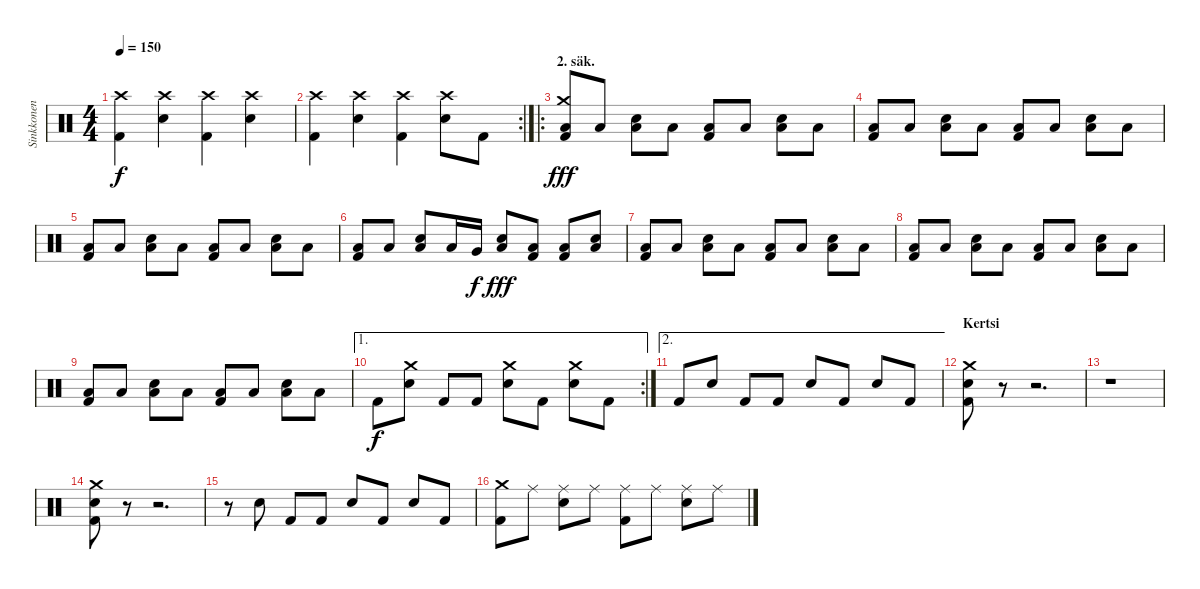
\track ("Sinkkonen" "Sinkkonen") {instrument percussion}
\staff {score}
\articulation defaults
\ts (4 4)
\tempo 150
\clef neutral
\ks c
("Kick (hit) 2" "Crash high (hit)").4{dy f} ("Crash high (hit)" "Snare (hit) 2").4 ("Kick (hit) 2" "Crash high (hit)").4 ("Crash high (hit)" "Snare (hit) 2").4 |
\rc 2
("Kick (hit) 2" "Crash high (hit)").4 ("Crash high (hit)" "Snare (hit) 2").4 ("Kick (hit) 2" "Crash high (hit)").4 ("Crash high (hit)" "Snare (hit) 2").8 "Kick (hit) 2".8 |
\ro
\section ("" "2. säk.")
("Kick (hit) 2" "Crash medium (hit)" "Low Floor Tom (hit)").8{dy fff} "Low Floor Tom (hit)".8 ("Low Floor Tom (hit)" "Snare (hit) 2").8 "Low Floor Tom (hit)".8 ("Kick (hit) 2" "Low Floor Tom (hit)").8 "Low Floor Tom (hit)".8 ("Low Floor Tom (hit)" "Snare (hit) 2").8 "Low Floor Tom (hit)".8 |
("Kick (hit) 2" "Low Floor Tom (hit)").8 "Low Floor Tom (hit)".8 ("Low Floor Tom (hit)" "Snare (hit) 2").8 "Low Floor Tom (hit)".8 ("Kick (hit) 2" "Low Floor Tom (hit)").8 "Low Floor Tom (hit)".8 ("Low Floor Tom (hit)" "Snare (hit) 2").8 "Low Floor Tom (hit)".8 |
("Kick (hit) 2" "Low Floor Tom (hit)").8 "Low Floor Tom (hit)".8 ("Low Floor Tom (hit)" "Snare (hit) 2").8 "Low Floor Tom (hit)".8 ("Kick (hit) 2" "Low Floor Tom (hit)").8 "Low Floor Tom (hit)".8 ("Low Floor Tom (hit)" "Snare (hit) 2").8 "Low Floor Tom (hit)".8 |
("Kick (hit) 2" "Low Floor Tom (hit)").8 "Low Floor Tom (hit)".8 ("Low Floor Tom (hit)" "Snare (hit) 2").8 "Low Tom (hit)".16 "Very Low Tom (hit)".16{dy f} ("Low Floor Tom (hit)" "Snare (hit) 2").8{dy fff} ("Kick (hit) 2" "Low Floor Tom (hit)").8 ("Kick (hit) 2" "Low Floor Tom (hit)").8 ("Low Floor Tom (hit)" "Snare (hit) 2").8 |
("Kick (hit) 2" "Low Floor Tom (hit)").8 "Low Floor Tom (hit)".8 ("Low Floor Tom (hit)" "Snare (hit) 2").8 "Low Floor Tom (hit)".8 ("Kick (hit) 2" "Low Floor Tom (hit)").8 "Low Floor Tom (hit)".8 ("Low Floor Tom (hit)" "Snare (hit) 2").8 "Low Floor Tom (hit)".8 |
("Kick (hit) 2" "Low Floor Tom (hit)").8 "Low Floor Tom (hit)".8 ("Low Floor Tom (hit)" "Snare (hit) 2").8 "Low Floor Tom (hit)".8 ("Kick (hit) 2" "Low Floor Tom (hit)").8 "Low Floor Tom (hit)".8 ("Low Floor Tom (hit)" "Snare (hit) 2").8 "Low Floor Tom (hit)".8 |
("Kick (hit) 2" "Low Floor Tom (hit)").8 "Low Floor Tom (hit)".8 ("Low Floor Tom (hit)" "Snare (hit) 2").8 "Low Floor Tom (hit)".8 ("Kick (hit) 2" "Low Floor Tom (hit)").8 "Low Floor Tom (hit)".8 ("Low Floor Tom (hit)" "Snare (hit) 2").8 "Low Floor Tom (hit)".8 |
\ae 1
\rc 2 "Kick (hit) 2".8{dy f}
("Crash medium (hit)" "Snare (hit) 2").8 "Kick (hit) 2".8 "Kick (hit) 2".8 ("Crash medium (hit)" "Snare (hit) 2").8 "Kick (hit) 2".8 ("Crash medium (hit)" "Snare (hit) 2").8 "Kick (hit) 2".8 |
\ae 2 "Kick (hit) 2".8 "Snare (hit) 2".8 "Kick (hit) 2".8 "Kick (hit) 2".8 "Snare (hit) 2".8 "Kick (hit) 2".8 "Snare (hit) 2".8 "Kick (hit) 2".8
|
\section ("" "Kertsi")
("Kick (hit) 2" "Crash medium (hit)" "Snare (hit) 2").8 r.8 r.2{d} |
r.1 |
("Kick (hit) 2" "Crash medium (hit)" "Snare (hit) 2").8 r.8 r.2{d} |
r.8 "Snare (hit) 2".8 "Kick (hit) 2".8 "Kick (hit) 2".8 "Snare (hit) 2".8 "Kick (hit) 2".8 "Snare (hit) 2".8 "Kick (hit) 2".8 |
("Kick (hit) 2" "Crash medium (hit)").8 "Ride (middle)".8 ("Ride (middle)" "Snare (hit) 2").8 "Ride (middle)".8 ("Kick (hit) 2" "Ride (middle)").8 "Ride (middle)".8 ("Ride (middle)" "Snare (hit) 2").8 "Ride (middle)".8
